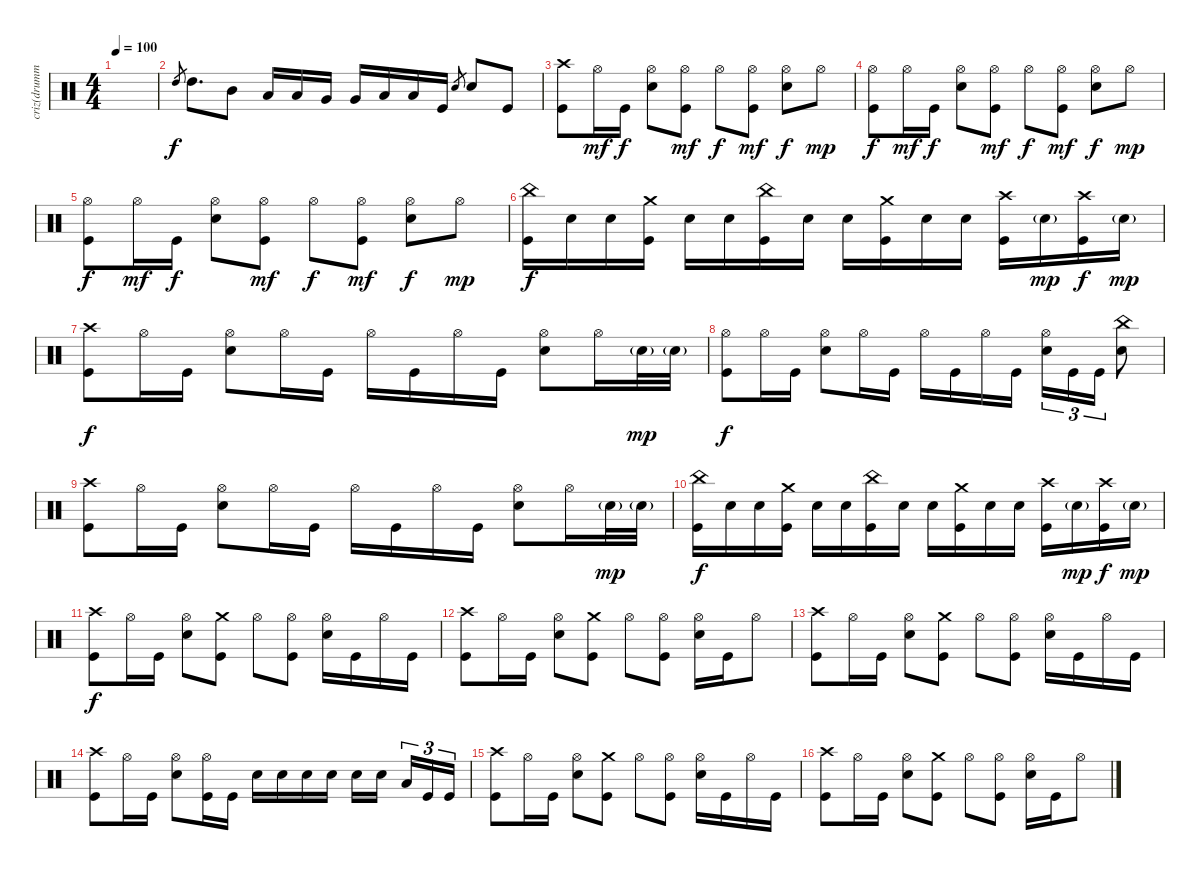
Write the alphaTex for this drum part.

\track ("criz(drummer)" "criz(drumm") {instrument percussion}
\staff {score}
\articulation defaults
\ts (4 4)
\tempo 100
\clef neutral
\ks c
|
"High Tom (hit)".8{gr} "High Tom (hit)".8{d} "Mid Tom (hit)".8 "Low Tom (hit)".16 "Low Tom (hit)".16 "Very Low Tom (hit)".16 "Very Low Tom (hit)".16 "Low Floor Tom (hit)".16 "Low Floor Tom (hit)".16 "Kick (hit)".16 "Electric Snare (hit)".8{gr} "Electric Snare (hit)".8 "Kick (hit)".8 |
("Crash high (hit)" "Kick (hit)").8 "Hi-Hat (open)".16{dy mf} "Kick (hit)".16{dy f} ("Hi-Hat (open)" "Electric Snare (hit)").8 ("Hi-Hat (open)" "Kick (hit)").8{dy mf} "Hi-Hat (open)".8{dy f} ("Hi-Hat (open)" "Kick (hit)").8{dy mf} ("Hi-Hat (open)" "Electric Snare (hit)").8{dy f} "Hi-Hat (open)".8{dy mp} |
("Hi-Hat (open)" "Kick (hit)").8{dy f} "Hi-Hat (open)".16{dy mf} "Kick (hit)".16{dy f} ("Hi-Hat (open)" "Electric Snare (hit)").8 ("Hi-Hat (open)" "Kick (hit)").8{dy mf} "Hi-Hat (open)".8{dy f} ("Hi-Hat (open)" "Kick (hit)").8{dy mf} ("Hi-Hat (open)" "Electric Snare (hit)").8{dy f} "Hi-Hat (open)".8{dy mp} |
("Hi-Hat (open)" "Kick (hit)").8{dy f} "Hi-Hat (open)".16{dy mf} "Kick (hit)".16{dy f} ("Hi-Hat (open)" "Electric Snare (hit)").8 ("Hi-Hat (open)" "Kick (hit)").8{dy mf} "Hi-Hat (open)".8{dy f} ("Hi-Hat (open)" "Kick (hit)").8{dy mf} ("Hi-Hat (open)" "Electric Snare (hit)").8{dy f} "Hi-Hat (open)".8{dy mp} |
("China (hit)" "Kick (hit)").16{dy f} "Electric Snare (hit)".16 "Electric Snare (hit)".16 ("Crash medium (hit)" "Kick (hit)").16 "Electric Snare (hit)".16 "Electric Snare (hit)".16 ("China (hit)" "Kick (hit)").16 "Electric Snare (hit)".16 "Electric Snare (hit)".16 ("Crash medium (hit)" "Kick (hit)").16 "Electric Snare (hit)".16 "Electric Snare (hit)".16 ("Crash high (hit)" "Kick (hit)").16 "Electric Snare (hit)"{g}.16{dy mp} ("Crash high (hit)" "Kick (hit)").16{dy f} "Electric Snare (hit)"{g}.16{dy mp} |
("Crash high (hit)" "Kick (hit)").8{dy f} "Hi-Hat (open)".16 "Kick (hit)".16 ("Hi-Hat (open)" "Electric Snare (hit)").8 "Hi-Hat (open)".16 "Kick (hit)".16 "Hi-Hat (open)".16 "Kick (hit)".16 "Hi-Hat (open)".16 "Kick (hit)".16 ("Hi-Hat (open)" "Electric Snare (hit)").8 "Hi-Hat (open)".16 "Electric Snare (hit)"{g}.32{dy mp} "Electric Snare (hit)"{g}.32 |
("Hi-Hat (open)" "Kick (hit)").8{dy f} "Hi-Hat (open)".16 "Kick (hit)".16 ("Hi-Hat (open)" "Electric Snare (hit)").8 "Hi-Hat (open)".16 "Kick (hit)".16 "Hi-Hat (open)".16 "Kick (hit)".16 "Hi-Hat (open)".16 "Kick (hit)".16 ("Hi-Hat (open)" "Electric Snare (hit)").16{tu (3 2)} "Kick (hit)".16{tu (3 2)} "Kick (hit)".16{tu (3 2)} ("China (hit)" "Electric Snare (hit)").8 |
("Crash high (hit)" "Kick (hit)").8 "Hi-Hat (open)".16 "Kick (hit)".16 ("Hi-Hat (open)" "Electric Snare (hit)").8 "Hi-Hat (open)".16 "Kick (hit)".16 "Hi-Hat (open)".16 "Kick (hit)".16 "Hi-Hat (open)".16 "Kick (hit)".16 ("Hi-Hat (open)" "Electric Snare (hit)").8 "Hi-Hat (open)".16 "Electric Snare (hit)"{g}.32{dy mp} "Electric Snare (hit)"{g}.32 |
("China (hit)" "Kick (hit)").16{dy f} "Electric Snare (hit)".16 "Electric Snare (hit)".16 ("Crash medium (hit)" "Kick (hit)").16 "Electric Snare (hit)".16 "Electric Snare (hit)".16 ("China (hit)" "Kick (hit)").16 "Electric Snare (hit)".16 "Electric Snare (hit)".16 ("Crash medium (hit)" "Kick (hit)").16 "Electric Snare (hit)".16 "Electric Snare (hit)".16 ("Crash high (hit)" "Kick (hit)").16 "Electric Snare (hit)"{g}.16{dy mp} ("Crash high (hit)" "Kick (hit)").16{dy f} "Electric Snare (hit)"{g}.16{dy mp} |
("Crash high (hit)" "Kick (hit)").8{dy f} "Hi-Hat (open)".16 "Kick (hit)".16 ("Hi-Hat (open)" "Electric Snare (hit)").8 ("Crash medium (hit)" "Kick (hit)").8 "Hi-Hat (open)".8 ("Hi-Hat (open)" "Kick (hit)").8 ("Hi-Hat (open)" "Electric Snare (hit)").16 "Kick (hit)".16 "Hi-Hat (open)".16 "Kick (hit)".16 |
("Crash high (hit)" "Kick (hit)").8 "Hi-Hat (open)".16 "Kick (hit)".16 ("Hi-Hat (open)" "Electric Snare (hit)").8 ("Crash medium (hit)" "Kick (hit)").8 "Hi-Hat (open)".8 ("Hi-Hat (open)" "Kick (hit)").8 ("Hi-Hat (open)" "Electric Snare (hit)").16 "Kick (hit)".16 "Hi-Hat (open)".8 |
("Crash high (hit)" "Kick (hit)").8 "Hi-Hat (open)".16 "Kick (hit)".16 ("Hi-Hat (open)" "Electric Snare (hit)").8 ("Crash medium (hit)" "Kick (hit)").8 "Hi-Hat (open)".8 ("Hi-Hat (open)" "Kick (hit)").8 ("Hi-Hat (open)" "Electric Snare (hit)").16 "Kick (hit)".16 "Hi-Hat (open)".16 "Kick (hit)".16 |
("Crash high (hit)" "Kick (hit)").8 "Hi-Hat (open)".16 "Kick (hit)".16 ("Hi-Hat (open)" "Electric Snare (hit)").8 ("Hi-Hat (open)" "Kick (hit)").16 "Kick (hit)".16 "Electric Snare (hit)".16 "Electric Snare (hit)".16 "Electric Snare (hit)".16 "Electric Snare (hit)".16 "Electric Snare (hit)".16 "Electric Snare (hit)".16{beam splitsecondary} "Low Floor Tom (hit)".16{tu (3 2)} "Kick (hit)".16{tu (3 2)} "Kick (hit)".16{tu (3 2)} |
("Crash high (hit)" "Kick (hit)").8 "Hi-Hat (open)".16 "Kick (hit)".16 ("Hi-Hat (open)" "Electric Snare (hit)").8 ("Crash medium (hit)" "Kick (hit)").8 "Hi-Hat (open)".8 ("Hi-Hat (open)" "Kick (hit)").8 ("Hi-Hat (open)" "Electric Snare (hit)").16 "Kick (hit)".16 "Hi-Hat (open)".16 "Kick (hit)".16 |
("Crash high (hit)" "Kick (hit)").8 "Hi-Hat (open)".16 "Kick (hit)".16 ("Hi-Hat (open)" "Electric Snare (hit)").8 ("Crash medium (hit)" "Kick (hit)").8 "Hi-Hat (open)".8 ("Hi-Hat (open)" "Kick (hit)").8 ("Hi-Hat (open)" "Electric Snare (hit)").16 "Kick (hit)".16 "Hi-Hat (open)".8
